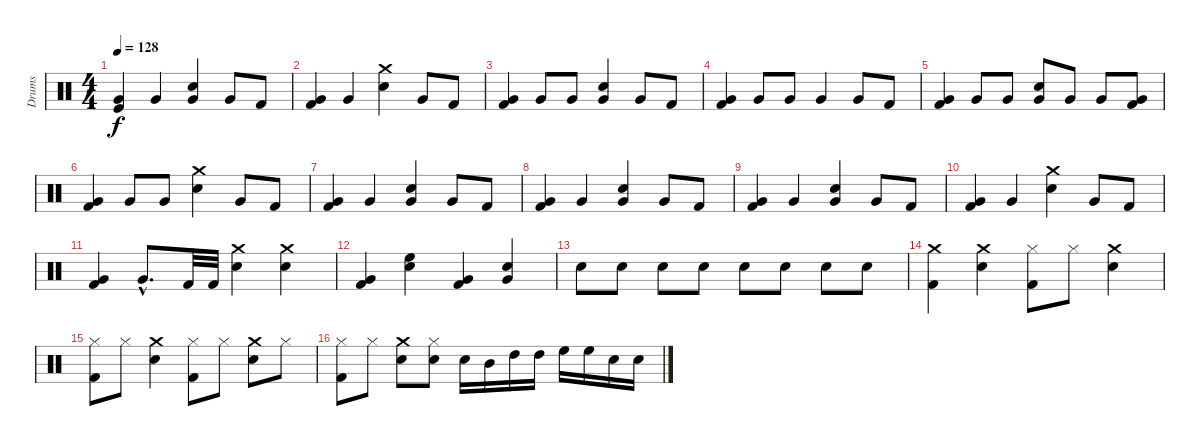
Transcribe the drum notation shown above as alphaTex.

\track ("Drums" "Drums") {instrument percussion}
\staff {score}
\articulation defaults
\ts (4 4)
\tempo 128
\clef neutral
\ks c
("Kick (hit)" "Very Low Tom (hit)").4{dy f} "Very Low Tom (hit)".4 ("Snare (hit) 2" "Very Low Tom (hit)").4 "Very Low Tom (hit)".8 "Kick (hit) 2".8 |
("Kick (hit) 2" "Very Low Tom (hit)").4 "Very Low Tom (hit)".4 ("Crash medium (hit)" "Snare (hit) 2").4 "Very Low Tom (hit)".8 "Kick (hit) 2".8 |
("Kick (hit) 2" "Very Low Tom (hit)").4 "Very Low Tom (hit)".8 "Very Low Tom (hit)".8 ("Snare (hit) 2" "Very Low Tom (hit)").4 "Very Low Tom (hit)".8 "Kick (hit) 2".8 |
("Very Low Tom (hit)" "Kick (hit) 2").4 "Very Low Tom (hit)".8 "Very Low Tom (hit)".8 "Very Low Tom (hit)".4 "Very Low Tom (hit)".8 "Kick (hit) 2".8 |
("Very Low Tom (hit)" "Kick (hit) 2").4 "Very Low Tom (hit)".8 "Very Low Tom (hit)".8 ("Snare (hit) 2" "Very Low Tom (hit)").8 "Very Low Tom (hit)".8 "Very Low Tom (hit)".8 ("Kick (hit) 2" "Very Low Tom (hit)").8 |
("Kick (hit) 2" "Very Low Tom (hit)").4 "Very Low Tom (hit)".8 "Very Low Tom (hit)".8 ("Crash medium (hit)" "Snare (hit) 2").4 "Very Low Tom (hit)".8 "Kick (hit) 2".8 |
("Kick (hit) 2" "Very Low Tom (hit)").4 "Very Low Tom (hit)".4 ("Snare (hit) 2" "Very Low Tom (hit)").4 "Very Low Tom (hit)".8 "Kick (hit) 2".8 |
("Kick (hit) 2" "Very Low Tom (hit)").4 "Very Low Tom (hit)".4 ("Snare (hit) 2" "Very Low Tom (hit)").4 "Very Low Tom (hit)".8 "Kick (hit) 2".8 |
("Kick (hit) 2" "Very Low Tom (hit)").4 "Very Low Tom (hit)".4 ("Snare (hit) 2" "Very Low Tom (hit)").4 "Very Low Tom (hit)".8 "Kick (hit) 2".8 |
("Kick (hit) 2" "Very Low Tom (hit)").4 "Very Low Tom (hit)".4 ("Crash medium (hit)" "Snare (hit) 2").4 "Very Low Tom (hit)".8 "Kick (hit) 2".8 |
("Very Low Tom (hit)" "Kick (hit) 2").4 "Very Low Tom (hit)"{hac}.8{d} "Kick (hit) 2".32 "Kick (hit) 2".32 ("Snare (hit) 2" "Crash medium (hit)").4 ("Snare (hit) 2" "Crash medium (hit)").4 |
("Very Low Tom (hit)" "Kick (hit) 2").4 ("High Floor Tom (hit)" "Snare (hit) 2").4 ("Very Low Tom (hit)" "Kick (hit) 2").4 ("Snare (hit) 2" "Very Low Tom (hit)").4 |
"Snare (hit) 2".8 "Snare (hit) 2".8 "Snare (hit) 2".8 "Snare (hit) 2".8 "Snare (hit) 2".8 "Snare (hit) 2".8 "Snare (hit) 2".8 "Snare (hit) 2".8 |
("Kick (hit) 2" "Crash medium (hit)").4 ("Snare (hit) 2" "Crash medium (hit)").4 ("Kick (hit) 2" "Hi-Hat (closed)").8 "Hi-Hat (closed)".8 ("Crash medium (hit)" "Snare (hit) 2").4 |
("Kick (hit) 2" "Hi-Hat (closed)").8 "Hi-Hat (closed)".8 ("Crash medium (hit)" "Snare (hit) 2").4 ("Kick (hit) 2" "Hi-Hat (closed)").8 "Hi-Hat (closed)".8 ("Snare (hit) 2" "Crash medium (hit)").8 "Hi-Hat (closed)".8 |
("Hi-Hat (closed)" "Kick (hit) 2").8 "Hi-Hat (closed)".8 ("Crash medium (hit)" "Snare (hit) 2").8 ("Snare (hit) 2" "Hi-Hat (closed)").8 "Snare (hit) 2".16 "Mid Tom (hit)".16 "High Tom (hit)".16 "High Tom (hit)".16 "High Floor Tom (hit)".16 "High Floor Tom (hit)".16 "Snare (hit) 2".16 "Snare (hit) 2".16
